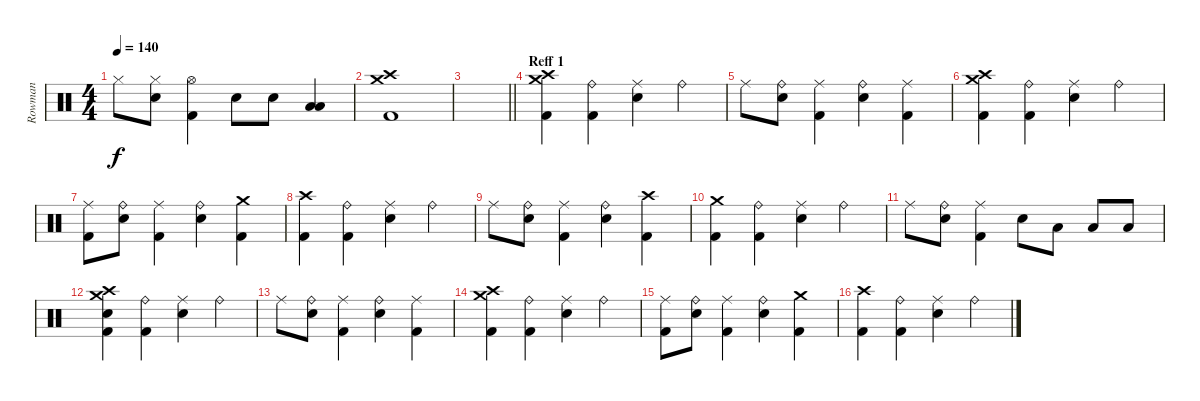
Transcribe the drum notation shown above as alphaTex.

\track ("Rowman" "Rowman") {instrument percussion}
\staff {score}
\articulation defaults
\ts (4 4)
\tempo 140
\clef neutral
\ks c "Hi-Hat (closed)".8{dy f}
("Hi-Hat (closed)" "Snare (hit) 2").8 ("Hi-Hat (open)" "Kick (hit) 2").4 "Snare (hit) 2".8 "Snare (hit) 2".8 ("Low Tom (hit)" "Low Floor Tom (hit)").4 |
("Crash medium (hit)" "Crash high (hit)" "Kick (hit) 2").1 |
\barLineRight lightlight
|
\section ("" "Reff 1")
("Crash high (hit)" "Crash medium (hit)" "Kick (hit) 2").4 ("Ride (bell)" "Kick (hit) 2").4 ("Ride (middle)" "Snare (hit) 2").4 "Ride (bell)".4 |
"Ride (middle)".8 ("Ride (bell)" "Snare (hit) 2").8 ("Ride (middle)" "Kick (hit) 2").4 ("Ride (bell)" "Snare (hit) 2").4 ("Ride (middle)" "Kick (hit) 2").4 |
("Crash high (hit)" "Crash medium (hit)" "Kick (hit) 2").4 ("Ride (bell)" "Kick (hit) 2").4 ("Ride (middle)" "Snare (hit) 2").4 "Ride (bell)".4 |
("Ride (middle)" "Kick (hit) 2").8 ("Ride (bell)" "Snare (hit) 2").8 ("Ride (middle)" "Kick (hit) 2").4 ("Ride (bell)" "Snare (hit) 2").4 ("Crash medium (hit)" "Kick (hit) 2").4 |
("Crash high (hit)" "Kick (hit) 2").4 ("Ride (bell)" "Kick (hit) 2").4 ("Ride (middle)" "Snare (hit) 2").4 "Ride (bell)".4 |
"Ride (middle)".8 ("Ride (bell)" "Snare (hit) 2").8 ("Ride (middle)" "Kick (hit) 2").4 ("Ride (bell)" "Snare (hit) 2").4 ("Crash high (hit)" "Kick (hit) 2").4 |
("Crash medium (hit)" "Kick (hit) 2").4 ("Ride (bell)" "Kick (hit) 2").4 ("Ride (middle)" "Snare (hit) 2").4 "Ride (bell)".4 |
"Ride (middle)".8 ("Ride (bell)" "Snare (hit) 2").8 ("Ride (middle)" "Kick (hit) 2").4 "Snare (hit) 2".8 "Low Tom (hit)".8 "Low Tom (hit)".8 "Low Floor Tom (hit)".8 |
("Crash high (hit)" "Crash medium (hit)" "Snare (hit) 2" "Kick (hit) 2").4 ("Ride (bell)" "Kick (hit) 2").4 ("Ride (middle)" "Snare (hit) 2").4 "Ride (bell)".4 |
"Ride (middle)".8 ("Ride (bell)" "Snare (hit) 2").8 ("Ride (middle)" "Kick (hit) 2").4 ("Ride (bell)" "Snare (hit) 2").4 ("Ride (middle)" "Kick (hit) 2").4 |
("Crash high (hit)" "Crash medium (hit)" "Kick (hit) 2").4 ("Ride (bell)" "Kick (hit) 2").4 ("Ride (middle)" "Snare (hit) 2").4 "Ride (bell)".4 |
("Ride (middle)" "Kick (hit) 2").8 ("Ride (bell)" "Snare (hit) 2").8 ("Ride (middle)" "Kick (hit) 2").4 ("Ride (bell)" "Snare (hit) 2").4 ("Crash medium (hit)" "Kick (hit) 2").4 |
("Crash high (hit)" "Kick (hit) 2").4 ("Ride (bell)" "Kick (hit) 2").4 ("Ride (middle)" "Snare (hit) 2").4 "Ride (bell)".4
